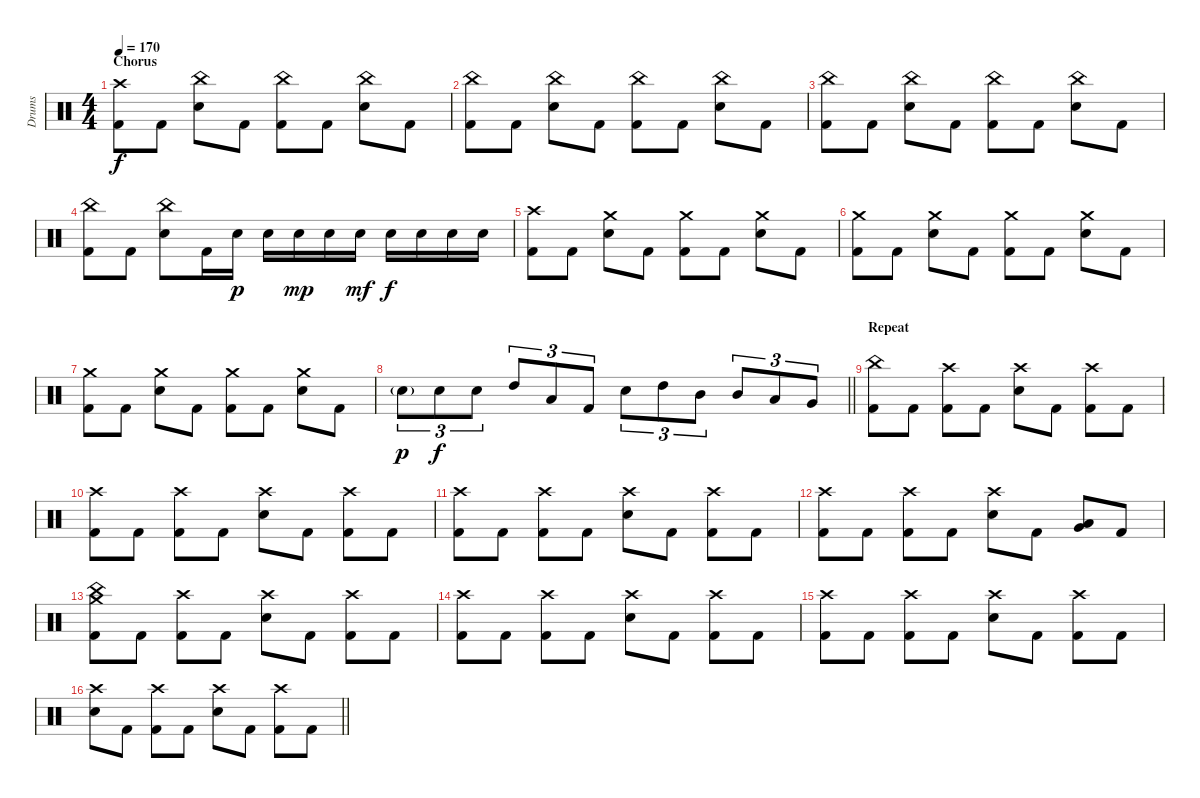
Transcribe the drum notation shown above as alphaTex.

\track ("Drums" "Drums") {instrument percussion}
\staff {score}
\articulation defaults
\ts (4 4)
\section ("" "Chorus")
\tempo 170
\clef neutral
\ks c
("Crash high (hit)" "Kick (hit) 2").8{dy f} "Kick (hit) 2".8 ("China (hit)" "Electric Snare (hit)").8 "Kick (hit) 2".8 ("China (hit)" "Kick (hit) 2").8 "Kick (hit) 2".8 ("China (hit)" "Electric Snare (hit)").8 "Kick (hit) 2".8 |
("China (hit)" "Kick (hit) 2").8 "Kick (hit) 2".8 ("China (hit)" "Electric Snare (hit)").8 "Kick (hit) 2".8 ("China (hit)" "Kick (hit) 2").8 "Kick (hit) 2".8 ("China (hit)" "Electric Snare (hit)").8 "Kick (hit) 2".8 |
("China (hit)" "Kick (hit) 2").8 "Kick (hit) 2".8 ("China (hit)" "Electric Snare (hit)").8 "Kick (hit) 2".8 ("China (hit)" "Kick (hit) 2").8 "Kick (hit) 2".8 ("China (hit)" "Electric Snare (hit)").8 "Kick (hit) 2".8 |
("China (hit)" "Kick (hit) 2").8 "Kick (hit) 2".8 ("China (hit)" "Electric Snare (hit)").8 "Kick (hit) 2".16 "Electric Snare (hit)".16{dy p} "Electric Snare (hit)".16 "Electric Snare (hit)".16{dy mp} "Electric Snare (hit)".16 "Electric Snare (hit)".16{dy mf} "Electric Snare (hit)".16{dy f} "Electric Snare (hit)".16 "Electric Snare (hit)".16 "Electric Snare (hit)".16 |
("Crash high (hit)" "Kick (hit) 2").8 "Kick (hit) 2".8 ("Crash medium (hit)" "Electric Snare (hit)").8 "Kick (hit) 2".8 ("Crash medium (hit)" "Kick (hit) 2").8 "Kick (hit) 2".8 ("Crash medium (hit)" "Electric Snare (hit)").8 "Kick (hit) 2".8 |
("Crash medium (hit)" "Kick (hit) 2").8 "Kick (hit) 2".8 ("Crash medium (hit)" "Electric Snare (hit)").8 "Kick (hit) 2".8 ("Crash medium (hit)" "Kick (hit) 2").8 "Kick (hit) 2".8 ("Crash medium (hit)" "Electric Snare (hit)").8 "Kick (hit) 2".8 |
("Crash medium (hit)" "Kick (hit) 2").8 "Kick (hit) 2".8 ("Crash medium (hit)" "Electric Snare (hit)").8 "Kick (hit) 2".8 ("Crash medium (hit)" "Kick (hit) 2").8 "Kick (hit) 2".8 ("Crash medium (hit)" "Electric Snare (hit)").8 "Kick (hit) 2".8 |
\barLineRight lightlight "Electric Snare (hit)"{g}.8{tu (3 2) dy p} "Electric Snare (hit)".8{tu (3 2) dy f} "Electric Snare (hit)".8{tu (3 2)} "High Tom (hit)".8{tu (3 2)} "Low Tom (hit)".8{tu (3 2)} "Kick (hit) 2".8{tu (3 2)} "Electric Snare (hit)".8{tu (3 2)} "High Tom (hit)".8{tu (3 2)} "Mid Tom (hit)".8{tu (3 2)} "Mid Tom (hit)".8{tu (3 2)} "Low Tom (hit)".8{tu (3 2)} "Very Low Tom (hit)".8{tu (3 2)}
|
\section ("" "Repeat")
("China (hit)" "Kick (hit) 2").8 "Kick (hit) 2".8 ("Crash high (hit)" "Kick (hit) 2").8 "Kick (hit) 2".8 ("Crash high (hit)" "Electric Snare (hit)").8 "Kick (hit) 2".8 ("Crash high (hit)" "Kick (hit) 2").8 "Kick (hit) 2".8 |
("Crash high (hit)" "Kick (hit) 2").8 "Kick (hit) 2".8 ("Crash high (hit)" "Kick (hit) 2").8 "Kick (hit) 2".8 ("Crash high (hit)" "Electric Snare (hit)").8 "Kick (hit) 2".8 ("Crash high (hit)" "Kick (hit) 2").8 "Kick (hit) 2".8 |
("Crash high (hit)" "Kick (hit) 2").8 "Kick (hit) 2".8 ("Crash high (hit)" "Kick (hit) 2").8 "Kick (hit) 2".8 ("Crash high (hit)" "Electric Snare (hit)").8 "Kick (hit) 2".8 ("Crash high (hit)" "Kick (hit) 2").8 "Kick (hit) 2".8 |
("Crash high (hit)" "Kick (hit) 2").8 "Kick (hit) 2".8 ("Crash high (hit)" "Kick (hit) 2").8 "Kick (hit) 2".8 ("Crash high (hit)" "Electric Snare (hit)").8 "Kick (hit) 2".8 ("Low Tom (hit)" "Very Low Tom (hit)").8 "Kick (hit) 2".8 |
("China (hit)" "Crash medium (hit)" "Kick (hit) 2").8 "Kick (hit) 2".8 ("Crash high (hit)" "Kick (hit) 2").8 "Kick (hit) 2".8 ("Crash high (hit)" "Electric Snare (hit)").8 "Kick (hit) 2".8 ("Crash high (hit)" "Kick (hit) 2").8 "Kick (hit) 2".8 |
("Crash high (hit)" "Kick (hit) 2").8 "Kick (hit) 2".8 ("Crash high (hit)" "Kick (hit) 2").8 "Kick (hit) 2".8 ("Crash high (hit)" "Electric Snare (hit)").8 "Kick (hit) 2".8 ("Crash high (hit)" "Kick (hit) 2").8 "Kick (hit) 2".8 |
("Crash high (hit)" "Kick (hit) 2").8 "Kick (hit) 2".8 ("Crash high (hit)" "Kick (hit) 2").8 "Kick (hit) 2".8 ("Crash high (hit)" "Electric Snare (hit)").8 "Kick (hit) 2".8 ("Crash high (hit)" "Kick (hit) 2").8 "Kick (hit) 2".8 |
\barLineRight lightlight
("Crash high (hit)" "Electric Snare (hit)").8 "Kick (hit) 2".8 ("Crash high (hit)" "Kick (hit) 2").8 "Kick (hit) 2".8 ("Crash high (hit)" "Electric Snare (hit)").8 "Kick (hit) 2".8 ("Crash high (hit)" "Kick (hit) 2").8 "Kick (hit) 2".8
